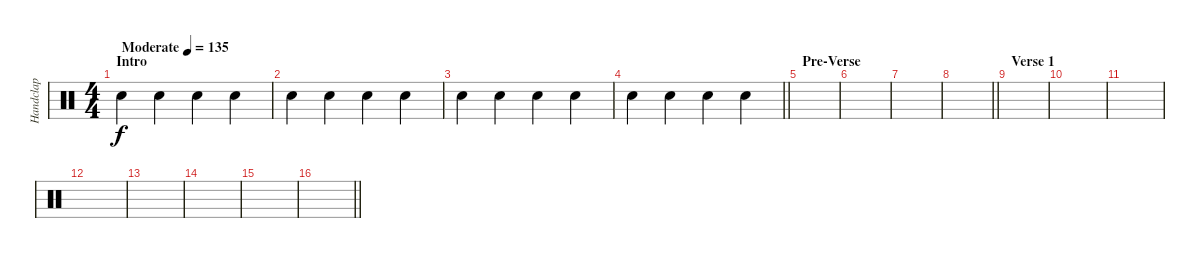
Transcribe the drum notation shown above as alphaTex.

\track ("Handclap" "Handclap") {instrument percussion}
\staff {score}
\articulation defaults
\ts (4 4)
\section ("" "Intro")
\tempo (135 "Moderate")
\clef neutral
\ks c "Hand Clap (hit)".4{dy f} "Hand Clap (hit)".4 "Hand Clap (hit)".4 "Hand Clap (hit)".4
|
"Hand Clap (hit)".4 "Hand Clap (hit)".4 "Hand Clap (hit)".4 "Hand Clap (hit)".4 |
"Hand Clap (hit)".4 "Hand Clap (hit)".4 "Hand Clap (hit)".4 "Hand Clap (hit)".4 |
\barLineRight lightlight "Hand Clap (hit)".4 "Hand Clap (hit)".4 "Hand Clap (hit)".4 "Hand Clap (hit)".4
|
\section ("" "Pre-Verse")
|
|
|
\barLineRight lightlight
|
\section ("" "Verse 1")
|
|
|
|
|
|
|
\barLineRight lightlight
